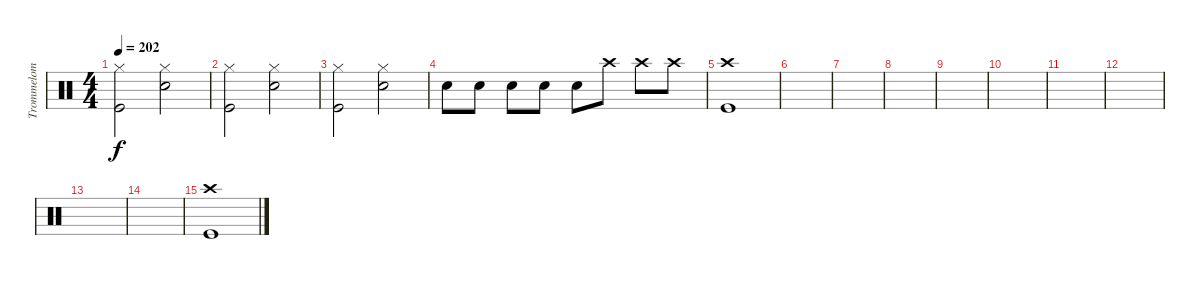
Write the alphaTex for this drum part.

\track ("Trommelom" "Trommelom") {instrument percussion}
\staff {score}
\articulation defaults
\ts (4 4)
\tempo 202
\clef neutral
\ks c
("Kick (hit)" "Hi-Hat (closed)").2{dy f} ("Electric Snare (hit)" "Hi-Hat (closed)").2 |
("Kick (hit)" "Hi-Hat (closed)").2 ("Electric Snare (hit)" "Hi-Hat (closed)").2 |
("Kick (hit)" "Hi-Hat (closed)").2 ("Electric Snare (hit)" "Hi-Hat (closed)").2 |
"Electric Snare (hit)".8 "Electric Snare (hit)".8 "Electric Snare (hit)".8 "Electric Snare (hit)".8 "Electric Snare (hit)".8 "Crash high (hit)".8 "Crash high (hit)".8 "Crash high (hit)".8 |
("Crash high (hit)" "Kick (hit)").1 |
|
|
|
|
|
|
|
|
|
("Crash high (hit)" "Kick (hit)").1
